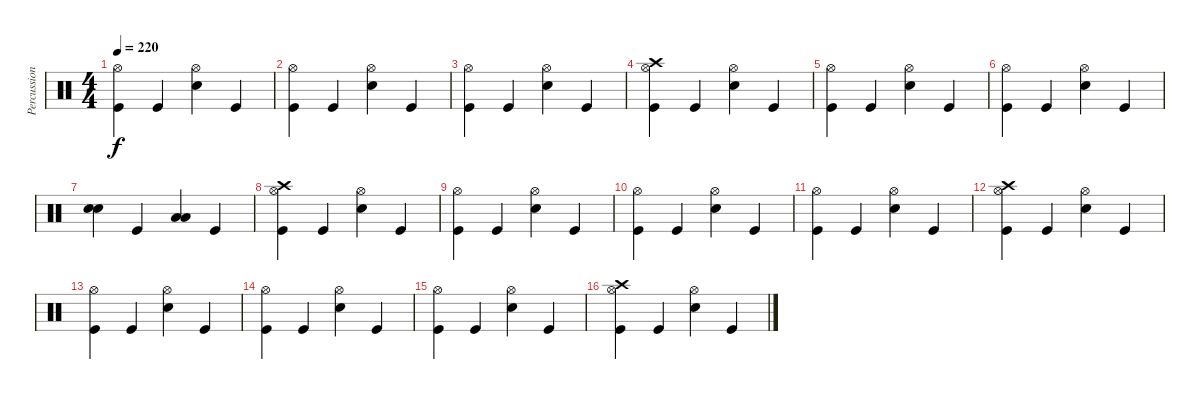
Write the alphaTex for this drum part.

\track ("Percussion" "Percussion") {instrument percussion}
\staff {score}
\articulation defaults
\ts (4 4)
\tempo 220
\clef neutral
\ks c
("Hi-Hat (open)" "Kick (hit)").4{dy f} "Kick (hit)".4 ("Hi-Hat (open)" "Snare (hit) 2").4 "Kick (hit)".4 |
("Hi-Hat (open)" "Kick (hit)").4 "Kick (hit)".4 ("Hi-Hat (open)" "Snare (hit) 2").4 "Kick (hit)".4 |
("Hi-Hat (open)" "Kick (hit)").4 "Kick (hit)".4 ("Hi-Hat (open)" "Snare (hit) 2").4 "Kick (hit)".4 |
("Crash high (hit)" "Hi-Hat (open)" "Kick (hit)").4 "Kick (hit)".4 ("Hi-Hat (open)" "Snare (hit) 2").4 "Kick (hit)".4 |
("Hi-Hat (open)" "Kick (hit)").4 "Kick (hit)".4 ("Hi-Hat (open)" "Snare (hit) 2").4 "Kick (hit)".4 |
("Hi-Hat (open)" "Kick (hit)").4 "Kick (hit)".4 ("Hi-Hat (open)" "Snare (hit) 2").4 "Kick (hit)".4 |
("Snare (hit) 2" "Electric Snare (hit)").4 "Kick (hit)".4 ("Low Floor Tom (hit)" "Low Tom (hit)").4 "Kick (hit)".4 |
("Crash high (hit)" "Hi-Hat (open)" "Kick (hit)").4 "Kick (hit)".4 ("Hi-Hat (open)" "Snare (hit) 2").4 "Kick (hit)".4 |
("Hi-Hat (open)" "Kick (hit)").4 "Kick (hit)".4 ("Hi-Hat (open)" "Snare (hit) 2").4 "Kick (hit)".4 |
("Hi-Hat (open)" "Kick (hit)").4 "Kick (hit)".4 ("Hi-Hat (open)" "Snare (hit) 2").4 "Kick (hit)".4 |
("Hi-Hat (open)" "Kick (hit)").4 "Kick (hit)".4 ("Hi-Hat (open)" "Snare (hit) 2").4 "Kick (hit)".4 |
("Crash high (hit)" "Hi-Hat (open)" "Kick (hit)").4 "Kick (hit)".4 ("Hi-Hat (open)" "Snare (hit) 2").4 "Kick (hit)".4 |
("Hi-Hat (open)" "Kick (hit)").4 "Kick (hit)".4 ("Hi-Hat (open)" "Snare (hit) 2").4 "Kick (hit)".4 |
("Hi-Hat (open)" "Kick (hit)").4 "Kick (hit)".4 ("Hi-Hat (open)" "Snare (hit) 2").4 "Kick (hit)".4 |
("Hi-Hat (open)" "Kick (hit)").4 "Kick (hit)".4 ("Hi-Hat (open)" "Snare (hit) 2").4 "Kick (hit)".4 |
("Crash high (hit)" "Hi-Hat (open)" "Kick (hit)").4 "Kick (hit)".4 ("Hi-Hat (open)" "Snare (hit) 2").4 "Kick (hit)".4
